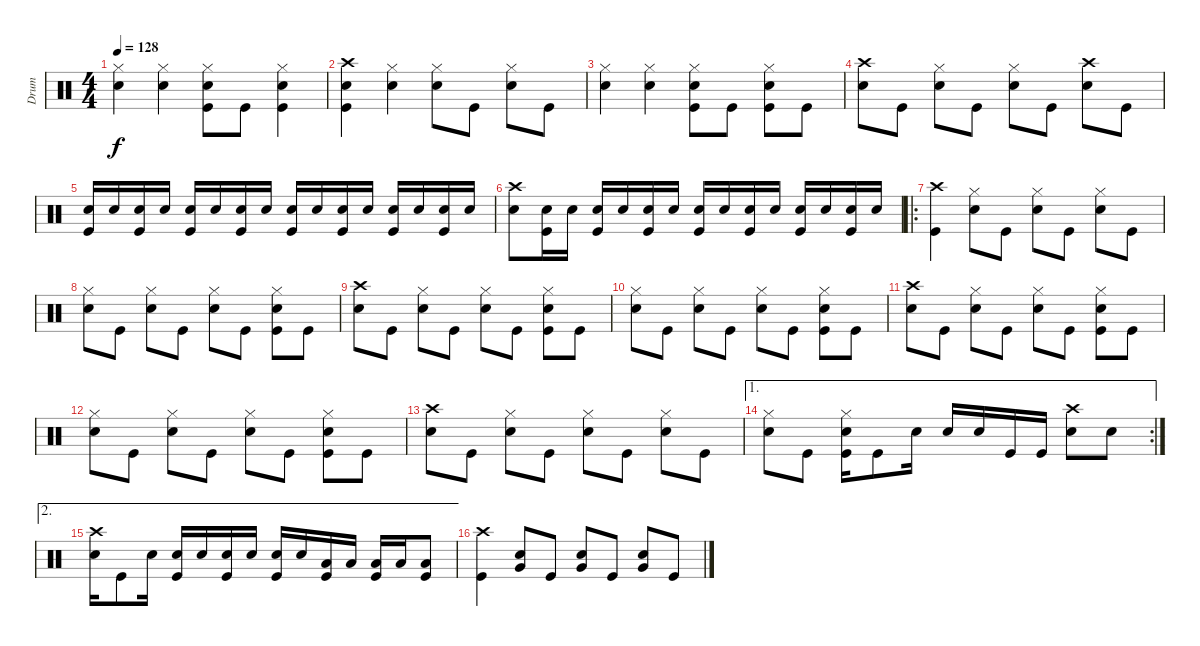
\track ("Drum" "Drum") {instrument percussion}
\staff {score}
\articulation defaults
\ts (4 4)
\tempo 128
\clef neutral
\ks c
("Hi-Hat (closed)" "Snare (hit) 2").4{dy f} ("Hi-Hat (closed)" "Snare (hit) 2").4 ("Hi-Hat (closed)" "Snare (hit) 2" "Kick (hit)").8 "Kick (hit)".8 ("Hi-Hat (closed)" "Snare (hit) 2" "Kick (hit)").4 |
("Crash high (hit)" "Snare (hit) 2" "Kick (hit)").4 ("Hi-Hat (closed)" "Snare (hit) 2").4 ("Hi-Hat (closed)" "Snare (hit) 2").8 "Kick (hit)".8 ("Hi-Hat (closed)" "Snare (hit) 2").8 "Kick (hit)".8 |
("Hi-Hat (closed)" "Snare (hit) 2").4 ("Hi-Hat (closed)" "Snare (hit) 2").4 ("Hi-Hat (closed)" "Snare (hit) 2" "Kick (hit)").8 "Kick (hit)".8 ("Hi-Hat (closed)" "Snare (hit) 2" "Kick (hit)").8 "Kick (hit)".8 |
("Crash high (hit)" "Snare (hit) 2").8 "Kick (hit)".8 ("Hi-Hat (closed)" "Snare (hit) 2").8 "Kick (hit)".8 ("Hi-Hat (closed)" "Snare (hit) 2").8 "Kick (hit)".8 ("Crash high (hit)" "Snare (hit) 2").8 "Kick (hit)".8 |
("Snare (hit) 2" "Kick (hit)").16 "Snare (hit) 2".16 ("Snare (hit) 2" "Kick (hit)").16 "Snare (hit) 2".16 ("Snare (hit) 2" "Kick (hit)").16 "Snare (hit) 2".16 ("Snare (hit) 2" "Kick (hit)").16 "Snare (hit) 2".16 ("Snare (hit) 2" "Kick (hit)").16 "Snare (hit) 2".16 ("Snare (hit) 2" "Kick (hit)").16 "Snare (hit) 2".16 ("Snare (hit) 2" "Kick (hit)").16 "Snare (hit) 2".16 ("Snare (hit) 2" "Kick (hit)").16 "Snare (hit) 2".16 |
("Crash high (hit)" "Snare (hit) 2").8 ("Snare (hit) 2" "Kick (hit)").16 "Snare (hit) 2".16 ("Snare (hit) 2" "Kick (hit)").16 "Snare (hit) 2".16 ("Snare (hit) 2" "Kick (hit)").16 "Snare (hit) 2".16 ("Snare (hit) 2" "Kick (hit)").16 "Snare (hit) 2".16 ("Snare (hit) 2" "Kick (hit)").16 "Snare (hit) 2".16 ("Snare (hit) 2" "Kick (hit)").16 "Snare (hit) 2".16 ("Snare (hit) 2" "Kick (hit)").16 "Snare (hit) 2".16 |
\ro
("Crash high (hit)" "Kick (hit)").4 ("Hi-Hat (closed)" "Snare (hit) 2").8 "Kick (hit)".8 ("Hi-Hat (closed)" "Snare (hit) 2").8 "Kick (hit)".8 ("Hi-Hat (closed)" "Snare (hit) 2").8 "Kick (hit)".8 |
("Hi-Hat (closed)" "Snare (hit) 2").8 "Kick (hit)".8 ("Hi-Hat (closed)" "Snare (hit) 2").8 "Kick (hit)".8 ("Hi-Hat (closed)" "Snare (hit) 2").8 "Kick (hit)".8 ("Hi-Hat (closed)" "Snare (hit) 2" "Kick (hit)").8 "Kick (hit)".8 |
("Crash high (hit)" "Snare (hit) 2").8 "Kick (hit)".8 ("Hi-Hat (closed)" "Snare (hit) 2").8 "Kick (hit)".8 ("Hi-Hat (closed)" "Snare (hit) 2").8 "Kick (hit)".8 ("Hi-Hat (closed)" "Snare (hit) 2" "Kick (hit)").8 "Kick (hit)".8 |
("Hi-Hat (closed)" "Snare (hit) 2").8 "Kick (hit)".8 ("Hi-Hat (closed)" "Snare (hit) 2").8 "Kick (hit)".8 ("Hi-Hat (closed)" "Snare (hit) 2").8 "Kick (hit)".8 ("Hi-Hat (closed)" "Snare (hit) 2" "Kick (hit)").8 "Kick (hit)".8 |
("Crash high (hit)" "Snare (hit) 2").8 "Kick (hit)".8 ("Hi-Hat (closed)" "Snare (hit) 2").8 "Kick (hit)".8 ("Hi-Hat (closed)" "Snare (hit) 2").8 "Kick (hit)".8 ("Hi-Hat (closed)" "Snare (hit) 2" "Kick (hit)").8 "Kick (hit)".8 |
("Hi-Hat (closed)" "Snare (hit) 2").8 "Kick (hit)".8 ("Hi-Hat (closed)" "Snare (hit) 2").8 "Kick (hit)".8 ("Hi-Hat (closed)" "Snare (hit) 2").8 "Kick (hit)".8 ("Hi-Hat (closed)" "Snare (hit) 2" "Kick (hit)").8 "Kick (hit)".8 |
("Crash high (hit)" "Snare (hit) 2").8 "Kick (hit)".8 ("Hi-Hat (closed)" "Snare (hit) 2").8 "Kick (hit)".8 ("Hi-Hat (closed)" "Snare (hit) 2").8 "Kick (hit)".8 ("Hi-Hat (closed)" "Snare (hit) 2").8 "Kick (hit)".8 |
\ae 1
\rc 2
("Hi-Hat (closed)" "Snare (hit) 2").8 "Kick (hit)".8 ("Hi-Hat (closed)" "Snare (hit) 2" "Kick (hit)").16 "Kick (hit)".8 "Snare (hit) 2".16 "Snare (hit) 2".16 "Snare (hit) 2".16 "Kick (hit)".16 "Kick (hit)".16 ("Crash high (hit)" "Snare (hit) 2").8 "Snare (hit) 2".8 |
\ae 2
("Crash high (hit)" "Snare (hit) 2").16 "Kick (hit)".8 "Snare (hit) 2".16 ("Snare (hit) 2" "Kick (hit)").16 "Snare (hit) 2".16 ("Snare (hit) 2" "Kick (hit)").16 "Snare (hit) 2".16 ("Snare (hit) 2" "Kick (hit)").16 "Snare (hit) 2".16 ("Low Tom (hit)" "Kick (hit)").16 "Low Tom (hit)".16 ("Low Tom (hit)" "Kick (hit)").16 "Low Tom (hit)".16 ("Low Tom (hit)" "Kick (hit)").8 |
("Crash high (hit)" "Kick (hit)").4 ("Snare (hit) 2" "Very Low Tom (hit)").8 "Kick (hit)".8 ("Snare (hit) 2" "Very Low Tom (hit)").8 "Kick (hit)".8 ("Snare (hit) 2" "Very Low Tom (hit)").8 "Kick (hit)".8
